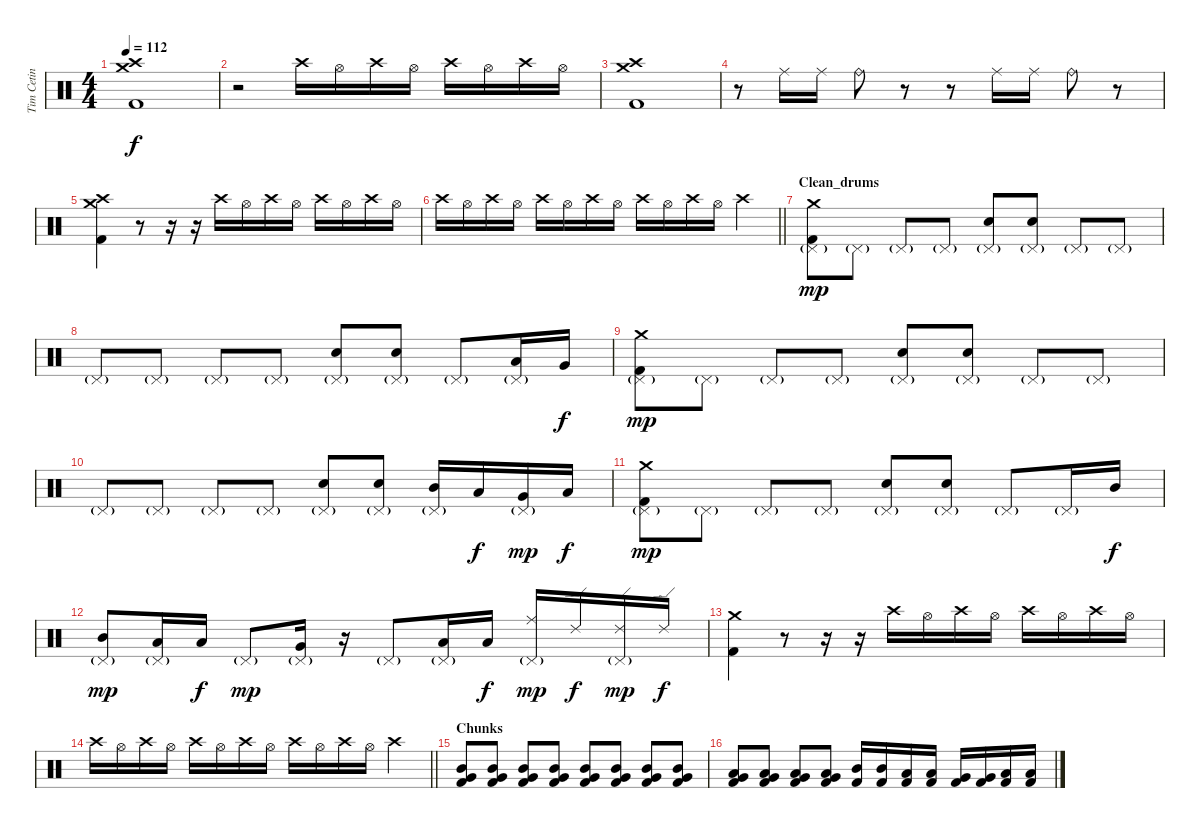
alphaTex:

\track ("Tim Cetin" "Tim Cetin") {instrument percussion}
\staff {score}
\articulation defaults
\ts (4 4)
\tempo 112
\clef neutral
\ks c
("Crash high (hit)" "Crash medium (hit)" "Kick (hit) 2").1{dy f} |
r.2{volume 0} "Crash high (hit)".16{volume 13} "Hi-Hat (open)".16 "Crash high (hit)".16 "Hi-Hat (open)".16 "Crash high (hit)".16 "Hi-Hat (open)".16 "Crash high (hit)".16 "Hi-Hat (open)".16 |
("Crash high (hit)" "Crash medium (hit)" "Kick (hit) 2").1 |
r.8 "Ride (middle)".16 "Ride (middle)".16 "Ride (bell)".8 r.8 r.8 "Ride (middle)".16 "Ride (middle)".16 "Ride (bell)".8 r.8 |
("Crash medium (hit)" "Crash high (hit)" "Kick (hit) 2").4 r.8 r.16 r.16{volume 0} "Crash high (hit)".16{volume 13} "Hi-Hat (open)".16 "Crash high (hit)".16 "Hi-Hat (open)".16 "Crash high (hit)".16 "Hi-Hat (open)".16 "Crash high (hit)".16 "Hi-Hat (open)".16 |
\barLineRight lightlight "Crash high (hit)".16 "Hi-Hat (open)".16 "Crash high (hit)".16 "Hi-Hat (open)".16 "Crash high (hit)".16 "Hi-Hat (open)".16 "Crash high (hit)".16 "Hi-Hat (open)".16 "Crash high (hit)".16 "Hi-Hat (open)".16 "Crash high (hit)".16 "Hi-Hat (open)".16 "Crash high (hit)".4
|
\section ("" "Clean_drums")
("Pedal Hi-Hat (hit)"{g} "Crash medium (hit)" "Kick (hit) 2").8{dy mp} "Pedal Hi-Hat (hit)"{g}.8 "Pedal Hi-Hat (hit)"{g}.8 "Pedal Hi-Hat (hit)"{g}.8 ("Pedal Hi-Hat (hit)"{g} "Snare (hit) 2").8 ("Pedal Hi-Hat (hit)"{g} "Snare (hit) 2").8 "Pedal Hi-Hat (hit)"{g}.8 "Pedal Hi-Hat (hit)"{g}.8 |
"Pedal Hi-Hat (hit)"{g}.8 "Pedal Hi-Hat (hit)"{g}.8 "Pedal Hi-Hat (hit)"{g}.8 "Pedal Hi-Hat (hit)"{g}.8 ("Pedal Hi-Hat (hit)"{g} "Snare (hit) 2").8 ("Pedal Hi-Hat (hit)"{g} "Snare (hit) 2").8 "Pedal Hi-Hat (hit)"{g}.8 ("Pedal Hi-Hat (hit)"{g} "Low Tom (hit)").16 "Very Low Tom (hit)".16{dy f} |
("Pedal Hi-Hat (hit)"{g} "Crash medium (hit)" "Kick (hit) 2").8{dy mp} "Pedal Hi-Hat (hit)"{g}.8 "Pedal Hi-Hat (hit)"{g}.8 "Pedal Hi-Hat (hit)"{g}.8 ("Pedal Hi-Hat (hit)"{g} "Snare (hit) 2").8 ("Pedal Hi-Hat (hit)"{g} "Snare (hit) 2").8 "Pedal Hi-Hat (hit)"{g}.8 "Pedal Hi-Hat (hit)"{g}.8 |
"Pedal Hi-Hat (hit)"{g}.8 "Pedal Hi-Hat (hit)"{g}.8 "Pedal Hi-Hat (hit)"{g}.8 "Pedal Hi-Hat (hit)"{g}.8 ("Pedal Hi-Hat (hit)"{g} "Snare (hit) 2").8 ("Pedal Hi-Hat (hit)"{g} "Snare (hit) 2").8 ("Pedal Hi-Hat (hit)"{g} "Mid Tom (hit)").16 "Low Tom (hit)".16{dy f} ("Pedal Hi-Hat (hit)"{g} "Very Low Tom (hit)").16{dy mp} "Low Floor Tom (hit)".16{dy f} |
("Pedal Hi-Hat (hit)"{g} "Crash medium (hit)" "Kick (hit) 2").8{dy mp} "Pedal Hi-Hat (hit)"{g}.8 "Pedal Hi-Hat (hit)"{g}.8 "Pedal Hi-Hat (hit)"{g}.8 ("Pedal Hi-Hat (hit)"{g} "Snare (hit) 2").8 ("Pedal Hi-Hat (hit)"{g} "Snare (hit) 2").8 "Pedal Hi-Hat (hit)"{g}.8 "Pedal Hi-Hat (hit)"{g}.16 "Mid Tom (hit)".16{dy f} |
("Pedal Hi-Hat (hit)"{g} "Mid Tom (hit)").8{dy mp} ("Pedal Hi-Hat (hit)"{g} "Low Tom (hit)").16 "Low Tom (hit)".16{dy f} "Pedal Hi-Hat (hit)"{g}.8{dy mp} ("Pedal Hi-Hat (hit)"{g} "Very Low Tom (hit)").16 r.16 "Pedal Hi-Hat (hit)"{g}.8 ("Pedal Hi-Hat (hit)"{g} "Low Floor Tom (hit)").16 "Low Floor Tom (hit)".16{dy f} ("Pedal Hi-Hat (hit)"{g} "Ride (middle)").16{dy mp} "Ride (edge) 2".16{dy f} ("Pedal Hi-Hat (hit)"{g} "Ride (edge) 2").16{dy mp} "Ride (edge) 2".16{dy f} |
("Crash medium (hit)" "Kick (hit) 2").4 r.8 r.16 r.16{volume 0} "Crash high (hit)".16{volume 13} "Hi-Hat (open)".16 "Crash high (hit)".16 "Hi-Hat (open)".16 "Crash high (hit)".16 "Hi-Hat (open)".16 "Crash high (hit)".16 "Hi-Hat (open)".16 |
\barLineRight lightlight "Crash high (hit)".16 "Hi-Hat (open)".16 "Crash high (hit)".16 "Hi-Hat (open)".16 "Crash high (hit)".16 "Hi-Hat (open)".16 "Crash high (hit)".16 "Hi-Hat (open)".16 "Crash high (hit)".16 "Hi-Hat (open)".16 "Crash high (hit)".16 "Hi-Hat (open)".16 "Crash high (hit)".4
|
\section ("" "Chunks")
("Mid Tom (hit)" "Very Low Tom (hit)" "Kick (hit) 2").8{volume 13} ("Mid Tom (hit)" "Very Low Tom (hit)" "Kick (hit) 2").8 ("Mid Tom (hit)" "Very Low Tom (hit)" "Kick (hit) 2").8 ("Mid Tom (hit)" "Very Low Tom (hit)" "Kick (hit) 2").8 ("Mid Tom (hit)" "Very Low Tom (hit)" "Kick (hit) 2").8 ("Mid Tom (hit)" "Very Low Tom (hit)" "Kick (hit) 2").8 ("Mid Tom (hit)" "Very Low Tom (hit)" "Kick (hit) 2").8 ("Mid Tom (hit)" "Very Low Tom (hit)" "Kick (hit) 2").8 |
("Low Tom (hit)" "Very Low Tom (hit)" "Kick (hit) 2").8 ("Low Tom (hit)" "Very Low Tom (hit)" "Kick (hit) 2").8 ("Low Tom (hit)" "Very Low Tom (hit)" "Kick (hit) 2").8 ("Low Tom (hit)" "Very Low Tom (hit)" "Kick (hit) 2").8 ("Mid Tom (hit)" "Kick (hit) 2").16 ("Mid Tom (hit)" "Kick (hit) 2").16 ("Low Tom (hit)" "Kick (hit) 2").16 ("Low Tom (hit)" "Kick (hit) 2").16 ("Very Low Tom (hit)" "Kick (hit) 2").16 ("Very Low Tom (hit)" "Kick (hit) 2").16 ("Low Floor Tom (hit)" "Kick (hit) 2").16 ("Low Floor Tom (hit)" "Kick (hit) 2").16
